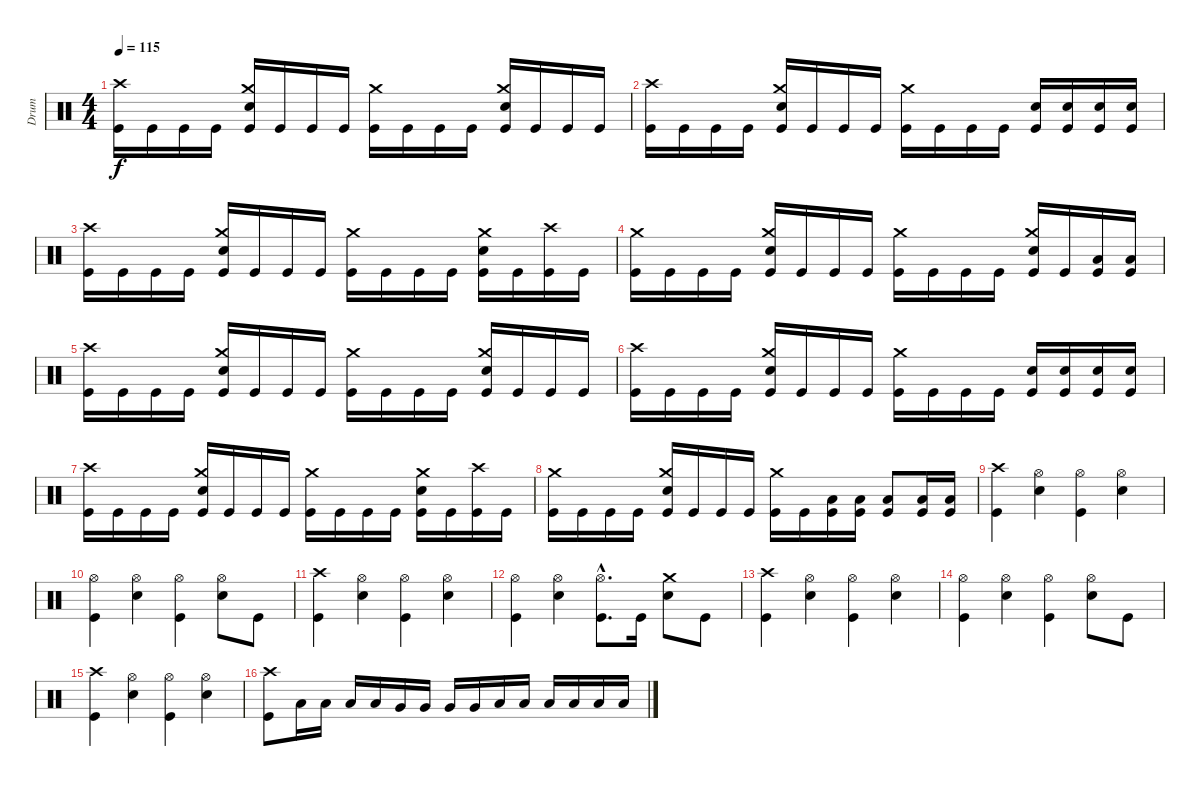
\track ("Drum" "Drum") {instrument percussion}
\staff {score}
\articulation defaults
\ts (4 4)
\tempo 115
\clef neutral
\ks c
("Kick (hit)" "Crash high (hit)").16{dy f} "Kick (hit)".16 "Kick (hit)".16 "Kick (hit)".16 ("Kick (hit)" "Crash medium (hit)" "Snare (hit) 2").16 "Kick (hit)".16 "Kick (hit)".16 "Kick (hit)".16 ("Kick (hit)" "Crash medium (hit)").16 "Kick (hit)".16 "Kick (hit)".16 "Kick (hit)".16 ("Kick (hit)" "Crash medium (hit)" "Snare (hit) 2").16 "Kick (hit)".16 "Kick (hit)".16 "Kick (hit)".16 |
("Kick (hit)" "Crash high (hit)").16 "Kick (hit)".16 "Kick (hit)".16 "Kick (hit)".16 ("Kick (hit)" "Crash medium (hit)" "Snare (hit) 2").16 "Kick (hit)".16 "Kick (hit)".16 "Kick (hit)".16 ("Kick (hit)" "Crash medium (hit)").16 "Kick (hit)".16 "Kick (hit)".16 "Kick (hit)".16 ("Kick (hit)" "Snare (hit) 2").16 ("Kick (hit)" "Snare (hit) 2").16 ("Kick (hit)" "Snare (hit) 2").16 ("Kick (hit)" "Snare (hit) 2").16 |
("Kick (hit)" "Crash high (hit)").16 "Kick (hit)".16 "Kick (hit)".16 "Kick (hit)".16 ("Kick (hit)" "Crash medium (hit)" "Snare (hit) 2").16 "Kick (hit)".16 "Kick (hit)".16 "Kick (hit)".16 ("Kick (hit)" "Crash medium (hit)").16 "Kick (hit)".16 "Kick (hit)".16 "Kick (hit)".16 ("Kick (hit)" "Crash medium (hit)" "Snare (hit) 2").16 "Kick (hit)".16 ("Kick (hit)" "Crash high (hit)").16 "Kick (hit)".16 |
("Kick (hit)" "Crash medium (hit)").16 "Kick (hit)".16 "Kick (hit)".16 "Kick (hit)".16 ("Kick (hit)" "Crash medium (hit)" "Snare (hit) 2").16 "Kick (hit)".16 "Kick (hit)".16 "Kick (hit)".16 ("Kick (hit)" "Crash medium (hit)").16 "Kick (hit)".16 "Kick (hit)".16 "Kick (hit)".16 ("Kick (hit)" "Crash medium (hit)" "Snare (hit) 2").16 "Kick (hit)".16 ("Kick (hit)" "Low Floor Tom (hit)").16 ("Kick (hit)" "Low Floor Tom (hit)").16 |
("Kick (hit)" "Crash high (hit)").16 "Kick (hit)".16 "Kick (hit)".16 "Kick (hit)".16 ("Kick (hit)" "Crash medium (hit)" "Snare (hit) 2").16 "Kick (hit)".16 "Kick (hit)".16 "Kick (hit)".16 ("Kick (hit)" "Crash medium (hit)").16 "Kick (hit)".16 "Kick (hit)".16 "Kick (hit)".16 ("Kick (hit)" "Crash medium (hit)" "Snare (hit) 2").16 "Kick (hit)".16 "Kick (hit)".16 "Kick (hit)".16 |
("Kick (hit)" "Crash high (hit)").16 "Kick (hit)".16 "Kick (hit)".16 "Kick (hit)".16 ("Kick (hit)" "Crash medium (hit)" "Snare (hit) 2").16 "Kick (hit)".16 "Kick (hit)".16 "Kick (hit)".16 ("Kick (hit)" "Crash medium (hit)").16 "Kick (hit)".16 "Kick (hit)".16 "Kick (hit)".16 ("Kick (hit)" "Snare (hit) 2").16 ("Kick (hit)" "Snare (hit) 2").16 ("Kick (hit)" "Snare (hit) 2").16 ("Kick (hit)" "Snare (hit) 2").16 |
("Kick (hit)" "Crash high (hit)").16 "Kick (hit)".16 "Kick (hit)".16 "Kick (hit)".16 ("Kick (hit)" "Crash medium (hit)" "Snare (hit) 2").16 "Kick (hit)".16 "Kick (hit)".16 "Kick (hit)".16 ("Kick (hit)" "Crash medium (hit)").16 "Kick (hit)".16 "Kick (hit)".16 "Kick (hit)".16 ("Kick (hit)" "Crash medium (hit)" "Snare (hit) 2").16 "Kick (hit)".16 ("Kick (hit)" "Crash high (hit)").16 "Kick (hit)".16 |
("Kick (hit)" "Crash medium (hit)").16 "Kick (hit)".16 "Kick (hit)".16 "Kick (hit)".16 ("Kick (hit)" "Crash medium (hit)" "Snare (hit) 2").16 "Kick (hit)".16 "Kick (hit)".16 "Kick (hit)".16 ("Kick (hit)" "Crash medium (hit)").16 "Kick (hit)".16 ("Kick (hit)" "Low Floor Tom (hit)").16 ("Kick (hit)" "Low Floor Tom (hit)").16 ("Kick (hit)" "Low Floor Tom (hit)").8 ("Kick (hit)" "Low Floor Tom (hit)").16 ("Kick (hit)" "Low Floor Tom (hit)").16 |
("Kick (hit)" "Crash high (hit)").4 ("Hi-Hat (open)" "Snare (hit) 2").4 ("Kick (hit)" "Hi-Hat (open)").4 ("Hi-Hat (open)" "Snare (hit) 2").4 |
("Kick (hit)" "Hi-Hat (open)").4 ("Hi-Hat (open)" "Snare (hit) 2").4 ("Kick (hit)" "Hi-Hat (open)").4 ("Hi-Hat (open)" "Snare (hit) 2").8 "Kick (hit)".8 |
("Kick (hit)" "Crash high (hit)").4 ("Hi-Hat (open)" "Snare (hit) 2").4 ("Kick (hit)" "Hi-Hat (open)").4 ("Hi-Hat (open)" "Snare (hit) 2").4 |
("Kick (hit)" "Hi-Hat (open)").4 ("Hi-Hat (open)" "Snare (hit) 2").4 ("Kick (hit)"{hac} "Hi-Hat (open)"{hac}).8{d} "Kick (hit)".16 ("Crash medium (hit)" "Snare (hit) 2").8 "Kick (hit)".8 |
("Kick (hit)" "Crash high (hit)").4 ("Hi-Hat (open)" "Snare (hit) 2").4 ("Kick (hit)" "Hi-Hat (open)").4 ("Hi-Hat (open)" "Snare (hit) 2").4 |
("Kick (hit)" "Hi-Hat (open)").4 ("Hi-Hat (open)" "Snare (hit) 2").4 ("Kick (hit)" "Hi-Hat (open)").4 ("Hi-Hat (open)" "Snare (hit) 2").8 "Kick (hit)".8 |
("Kick (hit)" "Crash high (hit)").4 ("Hi-Hat (open)" "Snare (hit) 2").4 ("Kick (hit)" "Hi-Hat (open)").4 ("Hi-Hat (open)" "Snare (hit) 2").4 |
("Kick (hit)" "Crash high (hit)").8 "Low Tom (hit)".16 "Low Tom (hit)".16 "Low Tom (hit)".16 "Low Tom (hit)".16 "Very Low Tom (hit)".16 "Very Low Tom (hit)".16 "Very Low Tom (hit)".16 "Very Low Tom (hit)".16 "Low Floor Tom (hit)".16 "Low Floor Tom (hit)".16 "Low Floor Tom (hit)".16 "Low Floor Tom (hit)".16 "Low Floor Tom (hit)".16 "Low Floor Tom (hit)".16
